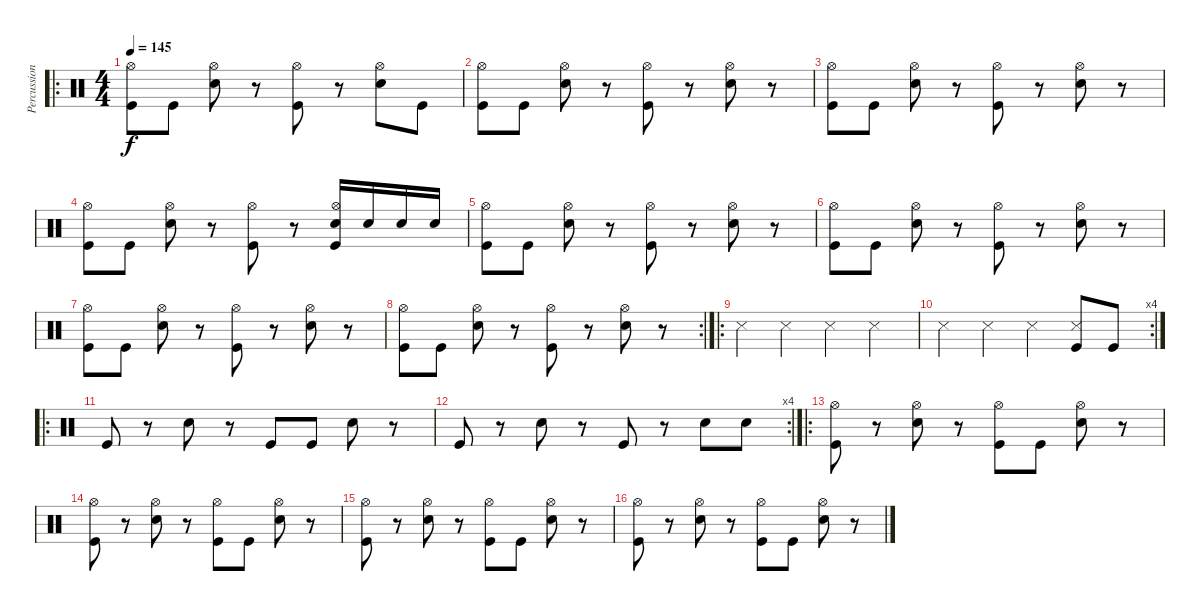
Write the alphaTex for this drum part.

\track ("Percussion" "Percussion") {instrument percussion}
\staff {score}
\articulation defaults
\ro
\ts (4 4)
\tempo 145
\clef neutral
\ks c
("Kick (hit)" "Hi-Hat (open)").8{dy f} "Kick (hit)".8 ("Snare (hit) 2" "Hi-Hat (open)").8 r.8 ("Kick (hit)" "Hi-Hat (open)").8 r.8 ("Snare (hit) 2" "Hi-Hat (open)").8 "Kick (hit)".8 |
("Kick (hit)" "Hi-Hat (open)").8 "Kick (hit)".8 ("Snare (hit) 2" "Hi-Hat (open)").8 r.8 ("Kick (hit)" "Hi-Hat (open)").8 r.8 ("Snare (hit) 2" "Hi-Hat (open)").8 r.8 |
("Kick (hit)" "Hi-Hat (open)").8 "Kick (hit)".8 ("Snare (hit) 2" "Hi-Hat (open)").8 r.8 ("Kick (hit)" "Hi-Hat (open)").8 r.8 ("Snare (hit) 2" "Hi-Hat (open)").8 r.8 |
("Kick (hit)" "Hi-Hat (open)").8 "Kick (hit)".8 ("Snare (hit) 2" "Hi-Hat (open)").8 r.8 ("Kick (hit)" "Hi-Hat (open)").8 r.8 ("Snare (hit) 2" "Kick (hit)" "Hi-Hat (open)").16 "Snare (hit) 2".16 "Snare (hit) 2".16 "Snare (hit) 2".16 |
("Kick (hit)" "Hi-Hat (open)").8 "Kick (hit)".8 ("Snare (hit) 2" "Hi-Hat (open)").8 r.8 ("Kick (hit)" "Hi-Hat (open)").8 r.8 ("Snare (hit) 2" "Hi-Hat (open)").8 r.8 |
("Kick (hit)" "Hi-Hat (open)").8 "Kick (hit)".8 ("Snare (hit) 2" "Hi-Hat (open)").8 r.8 ("Kick (hit)" "Hi-Hat (open)").8 r.8 ("Snare (hit) 2" "Hi-Hat (open)").8 r.8 |
("Kick (hit)" "Hi-Hat (open)").8 "Kick (hit)".8 ("Snare (hit) 2" "Hi-Hat (open)").8 r.8 ("Kick (hit)" "Hi-Hat (open)").8 r.8 ("Snare (hit) 2" "Hi-Hat (open)").8 r.8 |
\rc 2
("Kick (hit)" "Hi-Hat (open)").8 "Kick (hit)".8 ("Snare (hit) 2" "Hi-Hat (open)").8 r.8 ("Kick (hit)" "Hi-Hat (open)").8 r.8 ("Snare (hit) 2" "Hi-Hat (open)").8 r.8 |
\ro "Snare (side stick) 3".4 "Snare (side stick) 3".4 "Snare (side stick) 3".4 "Snare (side stick) 3".4
|
\rc 4 "Snare (side stick) 3".4 "Snare (side stick) 3".4 "Snare (side stick) 3".4
("Snare (side stick) 3" "Kick (hit)").8 "Kick (hit)".8 |
\ro "Kick (hit)".8
r.8 "Snare (hit) 2".8 r.8 "Kick (hit)".8 "Kick (hit)".8 "Snare (hit) 2".8 r.8 |
\rc 4 "Kick (hit)".8
r.8 "Snare (hit) 2".8 r.8 "Kick (hit)".8 r.8 "Snare (hit) 2".8 "Snare (hit) 2".8 |
\ro
("Kick (hit)" "Hi-Hat (open)").8 r.8 ("Snare (hit) 2" "Hi-Hat (open)").8 r.8 ("Kick (hit)" "Hi-Hat (open)").8 "Kick (hit)".8 ("Snare (hit) 2" "Hi-Hat (open)").8 r.8 |
("Kick (hit)" "Hi-Hat (open)").8 r.8 ("Snare (hit) 2" "Hi-Hat (open)").8 r.8 ("Kick (hit)" "Hi-Hat (open)").8 "Kick (hit)".8 ("Snare (hit) 2" "Hi-Hat (open)").8 r.8 |
("Kick (hit)" "Hi-Hat (open)").8 r.8 ("Snare (hit) 2" "Hi-Hat (open)").8 r.8 ("Kick (hit)" "Hi-Hat (open)").8 "Kick (hit)".8 ("Snare (hit) 2" "Hi-Hat (open)").8 r.8 |
("Kick (hit)" "Hi-Hat (open)").8 r.8 ("Snare (hit) 2" "Hi-Hat (open)").8 r.8 ("Kick (hit)" "Hi-Hat (open)").8 "Kick (hit)".8 ("Snare (hit) 2" "Hi-Hat (open)").8 r.8
